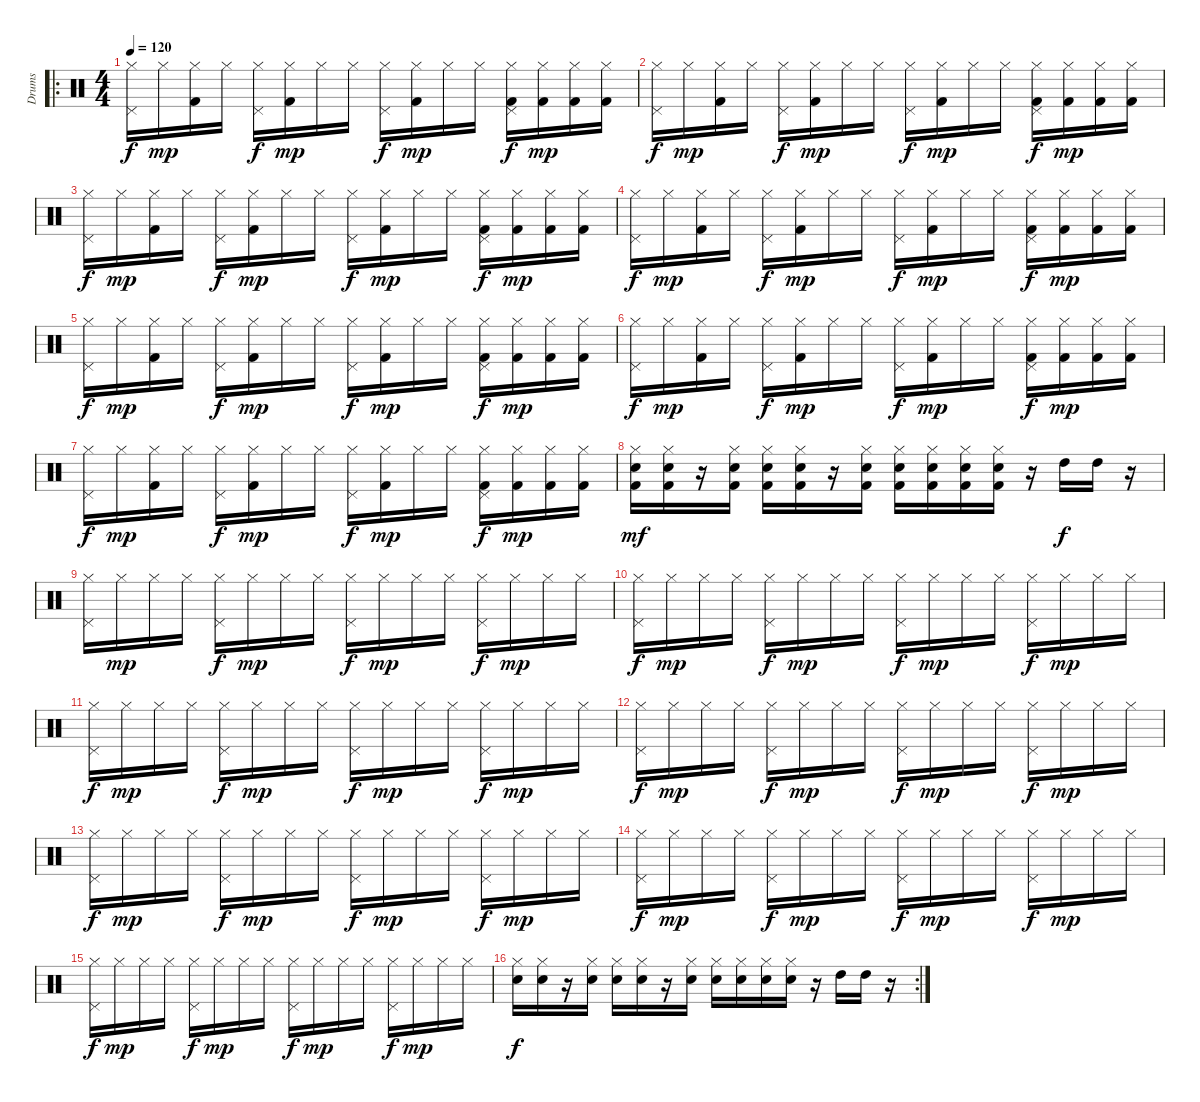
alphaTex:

\track ("Drums" "Drums") {instrument percussion}
\staff {score}
\articulation defaults
\ro
\ts (4 4)
\tempo 120
\clef neutral
\ks c
("Hi-Hat (closed)" "Pedal Hi-Hat (hit)").16{dy f} "Hi-Hat (closed)".16{dy mp} ("Hi-Hat (closed)" "Kick (hit) 2").16 "Hi-Hat (closed)".16 ("Hi-Hat (closed)" "Pedal Hi-Hat (hit)").16{dy f} ("Hi-Hat (closed)" "Kick (hit) 2").16{dy mp} "Hi-Hat (closed)".16 "Hi-Hat (closed)".16 ("Hi-Hat (closed)" "Pedal Hi-Hat (hit)").16{dy f} ("Hi-Hat (closed)" "Kick (hit) 2").16{dy mp} "Hi-Hat (closed)".16 "Hi-Hat (closed)".16 ("Hi-Hat (closed)" "Pedal Hi-Hat (hit)" "Kick (hit) 2").16{dy f} ("Hi-Hat (closed)" "Kick (hit) 2").16{dy mp} ("Hi-Hat (closed)" "Kick (hit) 2").16 ("Hi-Hat (closed)" "Kick (hit) 2").16 |
("Hi-Hat (closed)" "Pedal Hi-Hat (hit)").16{dy f} "Hi-Hat (closed)".16{dy mp} ("Hi-Hat (closed)" "Kick (hit) 2").16 "Hi-Hat (closed)".16 ("Hi-Hat (closed)" "Pedal Hi-Hat (hit)").16{dy f} ("Hi-Hat (closed)" "Kick (hit) 2").16{dy mp} "Hi-Hat (closed)".16 "Hi-Hat (closed)".16 ("Hi-Hat (closed)" "Pedal Hi-Hat (hit)").16{dy f} ("Hi-Hat (closed)" "Kick (hit) 2").16{dy mp} "Hi-Hat (closed)".16 "Hi-Hat (closed)".16 ("Hi-Hat (closed)" "Pedal Hi-Hat (hit)" "Kick (hit) 2").16{dy f} ("Hi-Hat (closed)" "Kick (hit) 2").16{dy mp} ("Hi-Hat (closed)" "Kick (hit) 2").16 ("Hi-Hat (closed)" "Kick (hit) 2").16 |
("Hi-Hat (closed)" "Pedal Hi-Hat (hit)").16{dy f} "Hi-Hat (closed)".16{dy mp} ("Hi-Hat (closed)" "Kick (hit) 2").16 "Hi-Hat (closed)".16 ("Hi-Hat (closed)" "Pedal Hi-Hat (hit)").16{dy f} ("Hi-Hat (closed)" "Kick (hit) 2").16{dy mp} "Hi-Hat (closed)".16 "Hi-Hat (closed)".16 ("Hi-Hat (closed)" "Pedal Hi-Hat (hit)").16{dy f} ("Hi-Hat (closed)" "Kick (hit) 2").16{dy mp} "Hi-Hat (closed)".16 "Hi-Hat (closed)".16 ("Hi-Hat (closed)" "Pedal Hi-Hat (hit)" "Kick (hit) 2").16{dy f} ("Hi-Hat (closed)" "Kick (hit) 2").16{dy mp} ("Hi-Hat (closed)" "Kick (hit) 2").16 ("Hi-Hat (closed)" "Kick (hit) 2").16 |
("Hi-Hat (closed)" "Pedal Hi-Hat (hit)").16{dy f} "Hi-Hat (closed)".16{dy mp} ("Hi-Hat (closed)" "Kick (hit) 2").16 "Hi-Hat (closed)".16 ("Hi-Hat (closed)" "Pedal Hi-Hat (hit)").16{dy f} ("Hi-Hat (closed)" "Kick (hit) 2").16{dy mp} "Hi-Hat (closed)".16 "Hi-Hat (closed)".16 ("Hi-Hat (closed)" "Pedal Hi-Hat (hit)").16{dy f} ("Hi-Hat (closed)" "Kick (hit) 2").16{dy mp} "Hi-Hat (closed)".16 "Hi-Hat (closed)".16 ("Hi-Hat (closed)" "Pedal Hi-Hat (hit)" "Kick (hit) 2").16{dy f} ("Hi-Hat (closed)" "Kick (hit) 2").16{dy mp} ("Hi-Hat (closed)" "Kick (hit) 2").16 ("Hi-Hat (closed)" "Kick (hit) 2").16 |
("Hi-Hat (closed)" "Pedal Hi-Hat (hit)").16{dy f} "Hi-Hat (closed)".16{dy mp} ("Hi-Hat (closed)" "Kick (hit) 2").16 "Hi-Hat (closed)".16 ("Hi-Hat (closed)" "Pedal Hi-Hat (hit)").16{dy f} ("Hi-Hat (closed)" "Kick (hit) 2").16{dy mp} "Hi-Hat (closed)".16 "Hi-Hat (closed)".16 ("Hi-Hat (closed)" "Pedal Hi-Hat (hit)").16{dy f} ("Hi-Hat (closed)" "Kick (hit) 2").16{dy mp} "Hi-Hat (closed)".16 "Hi-Hat (closed)".16 ("Hi-Hat (closed)" "Pedal Hi-Hat (hit)" "Kick (hit) 2").16{dy f} ("Hi-Hat (closed)" "Kick (hit) 2").16{dy mp} ("Hi-Hat (closed)" "Kick (hit) 2").16 ("Hi-Hat (closed)" "Kick (hit) 2").16 |
("Hi-Hat (closed)" "Pedal Hi-Hat (hit)").16{dy f} "Hi-Hat (closed)".16{dy mp} ("Hi-Hat (closed)" "Kick (hit) 2").16 "Hi-Hat (closed)".16 ("Hi-Hat (closed)" "Pedal Hi-Hat (hit)").16{dy f} ("Hi-Hat (closed)" "Kick (hit) 2").16{dy mp} "Hi-Hat (closed)".16 "Hi-Hat (closed)".16 ("Hi-Hat (closed)" "Pedal Hi-Hat (hit)").16{dy f} ("Hi-Hat (closed)" "Kick (hit) 2").16{dy mp} "Hi-Hat (closed)".16 "Hi-Hat (closed)".16 ("Hi-Hat (closed)" "Pedal Hi-Hat (hit)" "Kick (hit) 2").16{dy f} ("Hi-Hat (closed)" "Kick (hit) 2").16{dy mp} ("Hi-Hat (closed)" "Kick (hit) 2").16 ("Hi-Hat (closed)" "Kick (hit) 2").16 |
("Hi-Hat (closed)" "Pedal Hi-Hat (hit)").16{dy f} "Hi-Hat (closed)".16{dy mp} ("Hi-Hat (closed)" "Kick (hit) 2").16 "Hi-Hat (closed)".16 ("Hi-Hat (closed)" "Pedal Hi-Hat (hit)").16{dy f} ("Hi-Hat (closed)" "Kick (hit) 2").16{dy mp} "Hi-Hat (closed)".16 "Hi-Hat (closed)".16 ("Hi-Hat (closed)" "Pedal Hi-Hat (hit)").16{dy f} ("Hi-Hat (closed)" "Kick (hit) 2").16{dy mp} "Hi-Hat (closed)".16 "Hi-Hat (closed)".16 ("Hi-Hat (closed)" "Pedal Hi-Hat (hit)" "Kick (hit) 2").16{dy f} ("Hi-Hat (closed)" "Kick (hit) 2").16{dy mp} ("Hi-Hat (closed)" "Kick (hit) 2").16 ("Hi-Hat (closed)" "Kick (hit) 2").16 |
("Hi-Hat (closed)" "Snare (hit) 2" "Kick (hit) 2").16{dy mf} ("Hi-Hat (closed)" "Snare (hit) 2" "Kick (hit) 2").16 r.16 ("Hi-Hat (closed)" "Snare (hit) 2" "Kick (hit) 2").16 ("Hi-Hat (closed)" "Snare (hit) 2" "Kick (hit) 2").16 ("Hi-Hat (closed)" "Snare (hit) 2" "Kick (hit) 2").16 r.16 ("Hi-Hat (closed)" "Snare (hit) 2" "Kick (hit) 2").16 ("Hi-Hat (closed)" "Snare (hit) 2" "Kick (hit) 2").16 ("Hi-Hat (closed)" "Snare (hit) 2" "Kick (hit) 2").16 ("Hi-Hat (closed)" "Snare (hit) 2" "Kick (hit) 2").16 ("Hi-Hat (closed)" "Snare (hit) 2" "Kick (hit) 2").16 r.16 "High Tom (hit)".16{dy f} "High Tom (hit)".16 r.16 |
("Hi-Hat (closed)" "Pedal Hi-Hat (hit)").16 "Hi-Hat (closed)".16{dy mp} "Hi-Hat (closed)".16 "Hi-Hat (closed)".16 ("Hi-Hat (closed)" "Pedal Hi-Hat (hit)").16{dy f} "Hi-Hat (closed)".16{dy mp} "Hi-Hat (closed)".16 "Hi-Hat (closed)".16 ("Hi-Hat (closed)" "Pedal Hi-Hat (hit)").16{dy f} "Hi-Hat (closed)".16{dy mp} "Hi-Hat (closed)".16 "Hi-Hat (closed)".16 ("Hi-Hat (closed)" "Pedal Hi-Hat (hit)").16{dy f} "Hi-Hat (closed)".16{dy mp} "Hi-Hat (closed)".16 "Hi-Hat (closed)".16 |
("Hi-Hat (closed)" "Pedal Hi-Hat (hit)").16{dy f} "Hi-Hat (closed)".16{dy mp} "Hi-Hat (closed)".16 "Hi-Hat (closed)".16 ("Hi-Hat (closed)" "Pedal Hi-Hat (hit)").16{dy f} "Hi-Hat (closed)".16{dy mp} "Hi-Hat (closed)".16 "Hi-Hat (closed)".16 ("Hi-Hat (closed)" "Pedal Hi-Hat (hit)").16{dy f} "Hi-Hat (closed)".16{dy mp} "Hi-Hat (closed)".16 "Hi-Hat (closed)".16 ("Hi-Hat (closed)" "Pedal Hi-Hat (hit)").16{dy f} "Hi-Hat (closed)".16{dy mp} "Hi-Hat (closed)".16 "Hi-Hat (closed)".16 |
("Hi-Hat (closed)" "Pedal Hi-Hat (hit)").16{dy f} "Hi-Hat (closed)".16{dy mp} "Hi-Hat (closed)".16 "Hi-Hat (closed)".16 ("Hi-Hat (closed)" "Pedal Hi-Hat (hit)").16{dy f} "Hi-Hat (closed)".16{dy mp} "Hi-Hat (closed)".16 "Hi-Hat (closed)".16 ("Hi-Hat (closed)" "Pedal Hi-Hat (hit)").16{dy f} "Hi-Hat (closed)".16{dy mp} "Hi-Hat (closed)".16 "Hi-Hat (closed)".16 ("Hi-Hat (closed)" "Pedal Hi-Hat (hit)").16{dy f} "Hi-Hat (closed)".16{dy mp} "Hi-Hat (closed)".16 "Hi-Hat (closed)".16 |
("Hi-Hat (closed)" "Pedal Hi-Hat (hit)").16{dy f} "Hi-Hat (closed)".16{dy mp} "Hi-Hat (closed)".16 "Hi-Hat (closed)".16 ("Hi-Hat (closed)" "Pedal Hi-Hat (hit)").16{dy f} "Hi-Hat (closed)".16{dy mp} "Hi-Hat (closed)".16 "Hi-Hat (closed)".16 ("Hi-Hat (closed)" "Pedal Hi-Hat (hit)").16{dy f} "Hi-Hat (closed)".16{dy mp} "Hi-Hat (closed)".16 "Hi-Hat (closed)".16 ("Hi-Hat (closed)" "Pedal Hi-Hat (hit)").16{dy f} "Hi-Hat (closed)".16{dy mp} "Hi-Hat (closed)".16 "Hi-Hat (closed)".16 |
("Hi-Hat (closed)" "Pedal Hi-Hat (hit)").16{dy f} "Hi-Hat (closed)".16{dy mp} "Hi-Hat (closed)".16 "Hi-Hat (closed)".16 ("Hi-Hat (closed)" "Pedal Hi-Hat (hit)").16{dy f} "Hi-Hat (closed)".16{dy mp} "Hi-Hat (closed)".16 "Hi-Hat (closed)".16 ("Hi-Hat (closed)" "Pedal Hi-Hat (hit)").16{dy f} "Hi-Hat (closed)".16{dy mp} "Hi-Hat (closed)".16 "Hi-Hat (closed)".16 ("Hi-Hat (closed)" "Pedal Hi-Hat (hit)").16{dy f} "Hi-Hat (closed)".16{dy mp} "Hi-Hat (closed)".16 "Hi-Hat (closed)".16 |
("Hi-Hat (closed)" "Pedal Hi-Hat (hit)").16{dy f} "Hi-Hat (closed)".16{dy mp} "Hi-Hat (closed)".16 "Hi-Hat (closed)".16 ("Hi-Hat (closed)" "Pedal Hi-Hat (hit)").16{dy f} "Hi-Hat (closed)".16{dy mp} "Hi-Hat (closed)".16 "Hi-Hat (closed)".16 ("Hi-Hat (closed)" "Pedal Hi-Hat (hit)").16{dy f} "Hi-Hat (closed)".16{dy mp} "Hi-Hat (closed)".16 "Hi-Hat (closed)".16 ("Hi-Hat (closed)" "Pedal Hi-Hat (hit)").16{dy f} "Hi-Hat (closed)".16{dy mp} "Hi-Hat (closed)".16 "Hi-Hat (closed)".16 |
("Hi-Hat (closed)" "Pedal Hi-Hat (hit)").16{dy f} "Hi-Hat (closed)".16{dy mp} "Hi-Hat (closed)".16 "Hi-Hat (closed)".16 ("Hi-Hat (closed)" "Pedal Hi-Hat (hit)").16{dy f} "Hi-Hat (closed)".16{dy mp} "Hi-Hat (closed)".16 "Hi-Hat (closed)".16 ("Hi-Hat (closed)" "Pedal Hi-Hat (hit)").16{dy f} "Hi-Hat (closed)".16{dy mp} "Hi-Hat (closed)".16 "Hi-Hat (closed)".16 ("Hi-Hat (closed)" "Pedal Hi-Hat (hit)").16{dy f} "Hi-Hat (closed)".16{dy mp} "Hi-Hat (closed)".16 "Hi-Hat (closed)".16 |
\rc 2
("Hi-Hat (closed)" "Snare (hit) 2").16{dy f} ("Hi-Hat (closed)" "Snare (hit) 2").16 r.16 ("Hi-Hat (closed)" "Snare (hit) 2").16 ("Hi-Hat (closed)" "Snare (hit) 2").16 ("Hi-Hat (closed)" "Snare (hit) 2").16 r.16 ("Hi-Hat (closed)" "Snare (hit) 2").16 ("Hi-Hat (closed)" "Snare (hit) 2").16 ("Hi-Hat (closed)" "Snare (hit) 2").16 ("Hi-Hat (closed)" "Snare (hit) 2").16 ("Hi-Hat (closed)" "Snare (hit) 2").16 r.16 "High Tom (hit)".16 "High Tom (hit)".16 r.16
